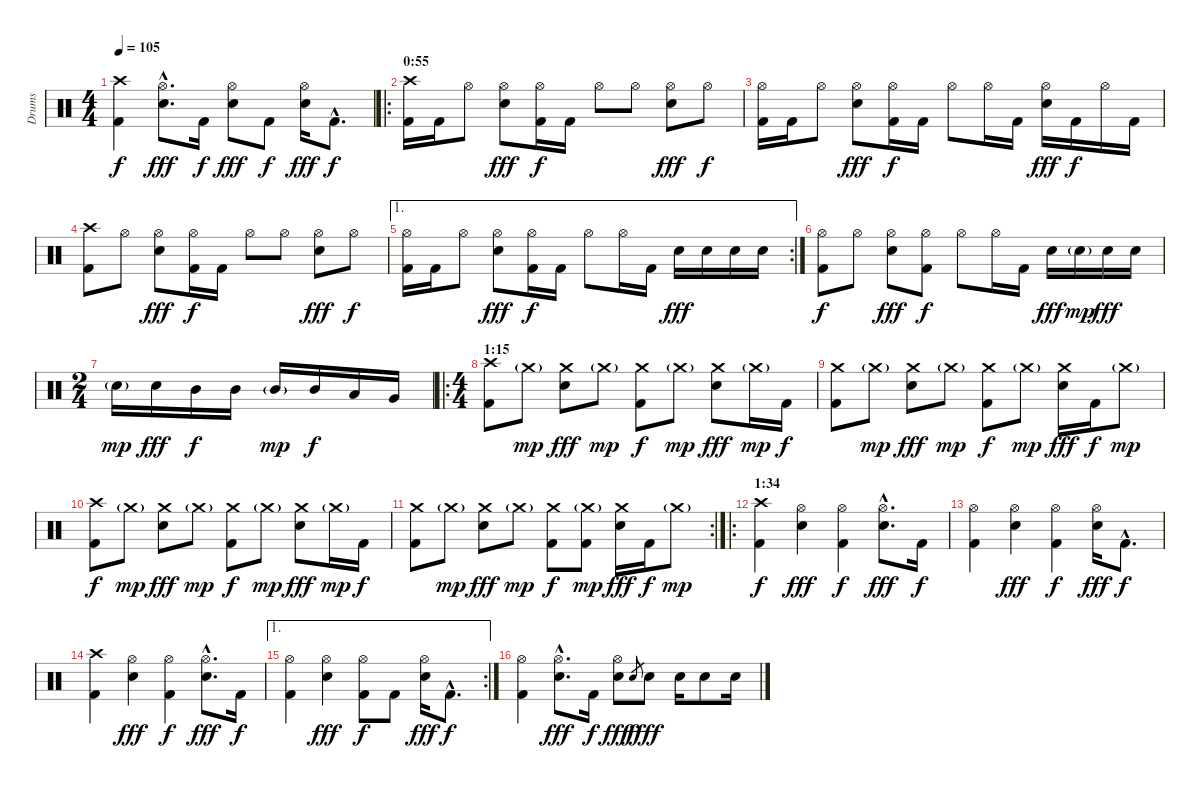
\track ("Drums" "Drums") {instrument percussion}
\staff {score}
\articulation defaults
\ts (4 4)
\tempo 105
\clef neutral
\ks c
("Crash high (hit)" "Kick (hit) 2").4{dy f} ("Hi-Hat (open)"{hac} "Snare (hit) 2"{hac}).8{d dy fff} "Kick (hit) 2".16{dy f} ("Hi-Hat (open)" "Snare (hit) 2").8{dy fff} "Kick (hit) 2".8{dy f} ("Hi-Hat (open)" "Snare (hit) 2").16{dy fff} "Kick (hit) 2"{hac}.8{d dy f} |
\ro
\section ("" "0:55")
("Crash high (hit)" "Kick (hit) 2").16 "Kick (hit) 2".16 "Hi-Hat (open)".8 ("Hi-Hat (open)" "Snare (hit) 2").8{dy fff} ("Hi-Hat (open)" "Kick (hit) 2").16{dy f} "Kick (hit) 2".16 "Hi-Hat (open)".8 "Hi-Hat (open)".8 ("Hi-Hat (open)" "Snare (hit) 2").8{dy fff} "Hi-Hat (open)".8{dy f} |
("Hi-Hat (open)" "Kick (hit) 2").16 "Kick (hit) 2".16 "Hi-Hat (open)".8 ("Hi-Hat (open)" "Snare (hit) 2").8{dy fff} ("Hi-Hat (open)" "Kick (hit) 2").16{dy f} "Kick (hit) 2".16 "Hi-Hat (open)".8 "Hi-Hat (open)".16 "Kick (hit) 2".16 ("Hi-Hat (open)" "Snare (hit) 2").16{dy fff} "Kick (hit) 2".16{dy f} "Hi-Hat (open)".16 "Kick (hit) 2".16 |
("Crash high (hit)" "Kick (hit) 2").8 "Hi-Hat (open)".8 ("Hi-Hat (open)" "Snare (hit) 2").8{dy fff} ("Hi-Hat (open)" "Kick (hit) 2").16{dy f} "Kick (hit) 2".16 "Hi-Hat (open)".8 "Hi-Hat (open)".8 ("Hi-Hat (open)" "Snare (hit) 2").8{dy fff} "Hi-Hat (open)".8{dy f} |
\ae 1
\rc 2
("Hi-Hat (open)" "Kick (hit) 2").16 "Kick (hit) 2".16 "Hi-Hat (open)".8 ("Hi-Hat (open)" "Snare (hit) 2").8{dy fff} ("Hi-Hat (open)" "Kick (hit) 2").16{dy f} "Kick (hit) 2".16 "Hi-Hat (open)".8 "Hi-Hat (open)".16 "Kick (hit) 2".16 "Snare (hit) 2".16{dy fff} "Snare (hit) 2".16 "Snare (hit) 2".16 "Snare (hit) 2".16 |
("Hi-Hat (open)" "Kick (hit) 2").8{dy f} "Hi-Hat (open)".8 ("Hi-Hat (open)" "Snare (hit) 2").8{dy fff} ("Hi-Hat (open)" "Kick (hit) 2").8{dy f} "Hi-Hat (open)".8 "Hi-Hat (open)".16 "Kick (hit) 2".16 "Snare (hit) 2".16{dy fff} "Snare (hit) 2"{g}.16{dy mp} "Snare (hit) 2".16{dy fff} "Snare (hit) 2".16 |
\ts (2 4)
"Snare (hit) 2"{g}.16{dy mp} "Snare (hit) 2".16{dy fff} "Mid Tom (hit)".16{dy f} "Mid Tom (hit)".16 "Mid Tom (hit)"{g}.16{dy mp} "Mid Tom (hit)".16{dy f} "Low Tom (hit)".16 "Very Low Tom (hit)".16 |
\ro
\ts (4 4)
\section ("" "1:15")
("Crash high (hit)" "Kick (hit) 2").8 "Crash medium (hit)"{g}.8{dy mp} ("Crash medium (hit)" "Snare (hit) 2").8{dy fff} "Crash medium (hit)"{g}.8{dy mp} ("Crash medium (hit)" "Kick (hit) 2").8{dy f} "Crash medium (hit)"{g}.8{dy mp} ("Crash medium (hit)" "Snare (hit) 2").8{dy fff} "Crash medium (hit)"{g}.16{dy mp} "Kick (hit) 2".16{dy f} |
("Crash medium (hit)" "Kick (hit) 2").8 "Crash medium (hit)"{g}.8{dy mp} ("Crash medium (hit)" "Snare (hit) 2").8{dy fff} "Crash medium (hit)"{g}.8{dy mp} ("Crash medium (hit)" "Kick (hit) 2").8{dy f} "Crash medium (hit)"{g}.8{dy mp} ("Crash medium (hit)" "Snare (hit) 2").16{dy fff} "Kick (hit) 2".16{dy f} "Crash medium (hit)"{g}.8{dy mp} |
("Crash high (hit)" "Kick (hit) 2").8{dy f} "Crash medium (hit)"{g}.8{dy mp} ("Crash medium (hit)" "Snare (hit) 2").8{dy fff} "Crash medium (hit)"{g}.8{dy mp} ("Crash medium (hit)" "Kick (hit) 2").8{dy f} "Crash medium (hit)"{g}.8{dy mp} ("Crash medium (hit)" "Snare (hit) 2").8{dy fff} "Crash medium (hit)"{g}.16{dy mp} "Kick (hit) 2".16{dy f} |
\rc 2
("Crash medium (hit)" "Kick (hit) 2").8 "Crash medium (hit)"{g}.8{dy mp} ("Crash medium (hit)" "Snare (hit) 2").8{dy fff} "Crash medium (hit)"{g}.8{dy mp} ("Crash medium (hit)" "Kick (hit) 2").8{dy f} ("Crash medium (hit)"{g} "Kick (hit) 2").8{dy mp} ("Crash medium (hit)" "Snare (hit) 2").16{dy fff} "Kick (hit) 2".16{dy f} "Crash medium (hit)"{g}.8{dy mp} |
\ro
\section ("" "1:34")
("Crash high (hit)" "Kick (hit) 2").4{dy f} ("Hi-Hat (open)" "Snare (hit) 2").4{dy fff} ("Hi-Hat (open)" "Kick (hit) 2").4{dy f} ("Hi-Hat (open)"{hac} "Snare (hit) 2"{hac}).8{d dy fff} "Kick (hit) 2".16{dy f} |
("Hi-Hat (open)" "Kick (hit) 2").4 ("Hi-Hat (open)" "Snare (hit) 2").4{dy fff} ("Hi-Hat (open)" "Kick (hit) 2").4{dy f} ("Hi-Hat (open)" "Snare (hit) 2").16{dy fff} "Kick (hit) 2"{hac}.8{d dy f} |
("Crash high (hit)" "Kick (hit) 2").4 ("Hi-Hat (open)" "Snare (hit) 2").4{dy fff} ("Hi-Hat (open)" "Kick (hit) 2").4{dy f} ("Hi-Hat (open)"{hac} "Snare (hit) 2"{hac}).8{d dy fff} "Kick (hit) 2".16{dy f} |
\ae 1
\rc 2
("Hi-Hat (open)" "Kick (hit) 2").4 ("Hi-Hat (open)" "Snare (hit) 2").4{dy fff} ("Hi-Hat (open)" "Kick (hit) 2").8{dy f} "Kick (hit) 2".8 ("Hi-Hat (open)" "Snare (hit) 2").16{dy fff} "Kick (hit) 2"{hac}.8{d dy f} |
("Hi-Hat (open)" "Kick (hit) 2").4 ("Hi-Hat (open)"{hac} "Snare (hit) 2"{hac}).8{d dy fff} "Kick (hit) 2".16{dy f} ("Hi-Hat (open)" "Snare (hit) 2").8{dy fff} "Snare (hit) 2".8{gr dy f} "Snare (hit) 2".8{dy fff} "Snare (hit) 2".16 "Snare (hit) 2".8 "Snare (hit) 2".16
